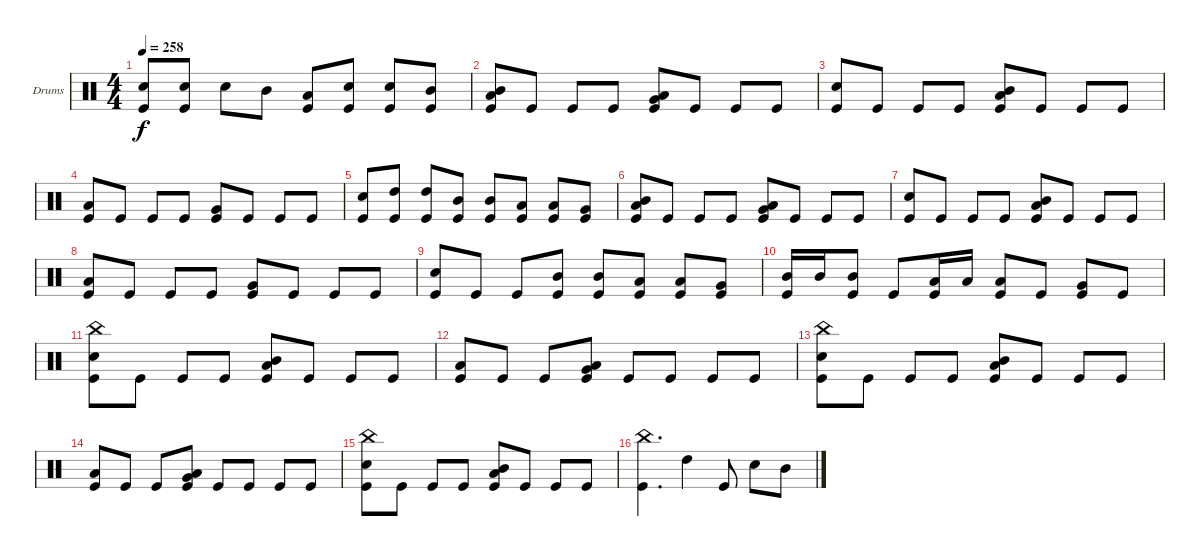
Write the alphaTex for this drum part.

\defaultSystemsLayout 4
\bracketExtendMode groupsimilarinstruments
\firstSystemTrackNameOrientation horizontal
\otherSystemsTrackNameOrientation horizontal
\track ("Drumkit" "Drums") {instrument percussion}
\staff {score}
\articulation defaults
\ts (4 4)
\tempo 258
\clef neutral
\ks c
("Kick (hit)" "Snare (hit) 2").8{dy f} ("Kick (hit)" "Snare (hit) 2").8 "Snare (hit) 2".8 "Mid Tom (hit)".8 ("Kick (hit)" "Low Tom (hit)").8 ("Kick (hit)" "Snare (hit) 2").8 ("Kick (hit)" "Snare (hit) 2").8 ("Kick (hit)" "Mid Tom (hit)").8 |
("Kick (hit)" "Mid Tom (hit)" "Low Tom (hit)").8 "Kick (hit)".8 "Kick (hit)".8 "Kick (hit)".8 ("Kick (hit)" "Low Tom (hit)" "Very Low Tom (hit)").8 "Kick (hit)".8 "Kick (hit)".8 "Kick (hit)".8 |
("Kick (hit)" "Snare (hit) 2").8 "Kick (hit)".8 "Kick (hit)".8 "Kick (hit)".8 ("Kick (hit)" "Mid Tom (hit)" "Low Tom (hit)").8 "Kick (hit)".8 "Kick (hit)".8 "Kick (hit)".8 |
("Kick (hit)" "Low Tom (hit)").8 "Kick (hit)".8 "Kick (hit)".8 "Kick (hit)".8 ("Kick (hit)" "Very Low Tom (hit)").8 "Kick (hit)".8 "Kick (hit)".8 "Kick (hit)".8 |
("Snare (hit) 2" "Kick (hit)").8 ("Kick (hit)" "High Tom (hit)").8 ("Kick (hit)" "High Tom (hit)").8 ("Kick (hit)" "Mid Tom (hit)").8 ("Kick (hit)" "Mid Tom (hit)").8 ("Kick (hit)" "Low Tom (hit)").8 ("Kick (hit)" "Low Tom (hit)").8 ("Kick (hit)" "Very Low Tom (hit)").8 |
("Kick (hit)" "Mid Tom (hit)" "Low Tom (hit)").8 "Kick (hit)".8 "Kick (hit)".8 "Kick (hit)".8 ("Kick (hit)" "Low Tom (hit)" "Very Low Tom (hit)").8 "Kick (hit)".8 "Kick (hit)".8 "Kick (hit)".8 |
("Kick (hit)" "Snare (hit) 2").8 "Kick (hit)".8 "Kick (hit)".8 "Kick (hit)".8 ("Kick (hit)" "Mid Tom (hit)" "Low Tom (hit)").8 "Kick (hit)".8 "Kick (hit)".8 "Kick (hit)".8 |
("Kick (hit)" "Low Tom (hit)").8 "Kick (hit)".8 "Kick (hit)".8 "Kick (hit)".8 ("Kick (hit)" "Very Low Tom (hit)").8 "Kick (hit)".8 "Kick (hit)".8 "Kick (hit)".8 |
("Kick (hit)" "Snare (hit) 2").8 "Kick (hit)".8 "Kick (hit)".8 ("Kick (hit)" "Mid Tom (hit)").8 ("Kick (hit)" "Mid Tom (hit)").8 ("Kick (hit)" "Low Tom (hit)").8 ("Kick (hit)" "Low Tom (hit)").8 ("Kick (hit)" "Very Low Tom (hit)").8 |
("Mid Tom (hit)" "Kick (hit)").16 "Mid Tom (hit)".16 ("Mid Tom (hit)" "Kick (hit)").8 "Kick (hit)".8 ("Low Tom (hit)" "Kick (hit)").16 "Low Tom (hit)".16 ("Low Tom (hit)" "Kick (hit)").8 "Kick (hit)".8 ("Kick (hit)" "Very Low Tom (hit)").8 "Kick (hit)".8 |
("Kick (hit)" "Snare (hit) 2" "China (hit)").8 "Kick (hit)".8 "Kick (hit)".8 "Kick (hit)".8 ("Kick (hit)" "Mid Tom (hit)" "Low Tom (hit)").8 "Kick (hit)".8 "Kick (hit)".8 "Kick (hit)".8 |
("Kick (hit)" "Low Tom (hit)").8 "Kick (hit)".8 "Kick (hit)".8 ("Kick (hit)" "Very Low Tom (hit)" "Low Tom (hit)").8 "Kick (hit)".8 "Kick (hit)".8 "Kick (hit)".8 "Kick (hit)".8 |
("Kick (hit)" "Snare (hit) 2" "China (hit)").8 "Kick (hit)".8 "Kick (hit)".8 "Kick (hit)".8 ("Kick (hit)" "Mid Tom (hit)" "Low Tom (hit)").8 "Kick (hit)".8 "Kick (hit)".8 "Kick (hit)".8 |
("Kick (hit)" "Low Tom (hit)").8 "Kick (hit)".8 "Kick (hit)".8 ("Kick (hit)" "Very Low Tom (hit)" "Low Tom (hit)").8 "Kick (hit)".8 "Kick (hit)".8 "Kick (hit)".8 "Kick (hit)".8 |
("Kick (hit)" "Snare (hit) 2" "China (hit)").8 "Kick (hit)".8 "Kick (hit)".8 "Kick (hit)".8 ("Kick (hit)" "Mid Tom (hit)" "Low Tom (hit)").8 "Kick (hit)".8 "Kick (hit)".8 "Kick (hit)".8 |
("China (hit)" "Kick (hit)").4{d} "High Tom (hit)".4 "Kick (hit)".8 "Snare (hit) 2".8 "Mid Tom (hit)".8
